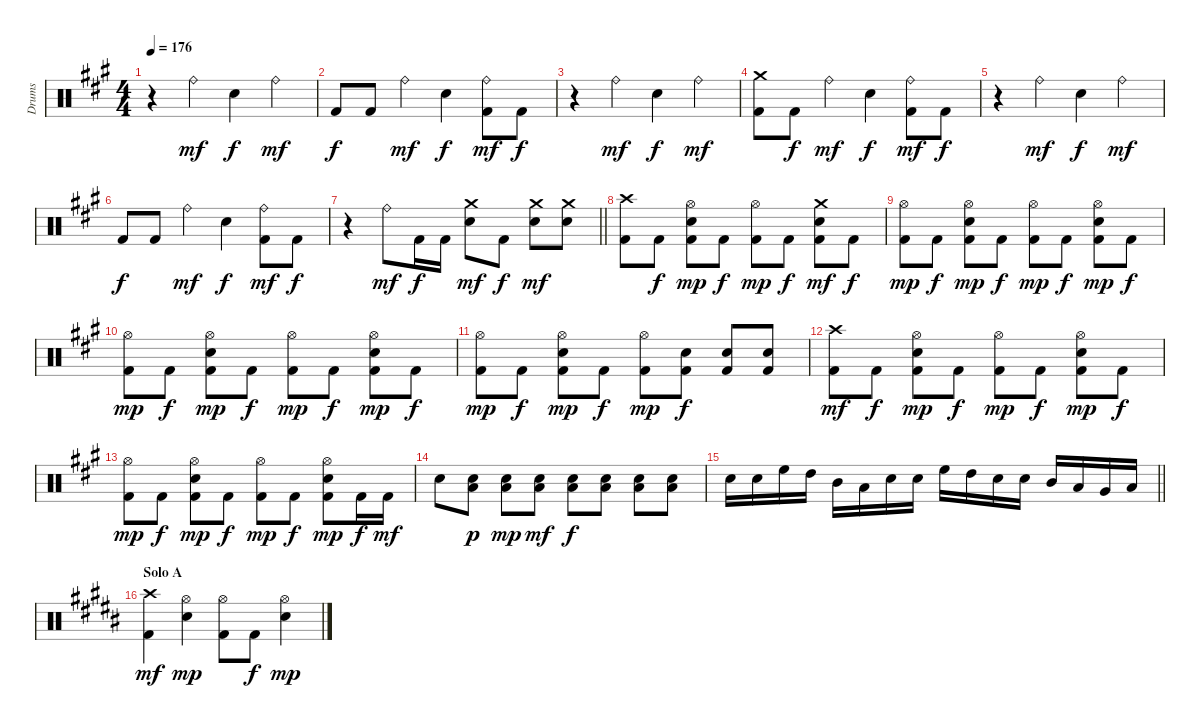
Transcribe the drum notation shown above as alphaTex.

\track ("Drums" "Drums") {instrument percussion}
\staff {score}
\articulation defaults
\ts (4 4)
\tempo 176
\clef neutral
\ks f#minor
r.4{dy f} "Ride (bell)".4{dy mf} "Electric Snare (hit)".4{dy f} "Ride (bell)".4{dy mf} |
"Kick (hit) 2".8{dy f} "Kick (hit) 2".8 "Ride (bell)".4{dy mf} "Electric Snare (hit)".4{dy f} ("Ride (bell)" "Kick (hit) 2").8{dy mf} "Kick (hit) 2".8{dy f} |
r.4 "Ride (bell)".4{dy mf} "Electric Snare (hit)".4{dy f} "Ride (bell)".4{dy mf} |
("Crash medium (hit)" "Kick (hit) 2").8 "Kick (hit) 2".8{dy f} "Ride (bell)".4{dy mf} "Electric Snare (hit)".4{dy f} ("Ride (bell)" "Kick (hit) 2").8{dy mf} "Kick (hit) 2".8{dy f} |
r.4 "Ride (bell)".4{dy mf} "Electric Snare (hit)".4{dy f} "Ride (bell)".4{dy mf} |
"Kick (hit) 2".8{dy f} "Kick (hit) 2".8 "Ride (bell)".4{dy mf} "Electric Snare (hit)".4{dy f} ("Ride (bell)" "Kick (hit) 2").8{dy mf} "Kick (hit) 2".8{dy f} |
\barLineRight lightlight
r.4 "Ride (bell)".8{dy mf} "Kick (hit) 2".16{dy f} "Kick (hit) 2".16 ("Crash medium (hit)" "Electric Snare (hit)").8{dy mf} "Kick (hit) 2".8{dy f} ("Crash medium (hit)" "Electric Snare (hit)").8{dy mf} ("Crash medium (hit)" "Electric Snare (hit)").8 |
\section ("" "")
("Crash high (hit)" "Kick (hit) 2").8 "Kick (hit) 2".8{dy f} ("Hi-Hat (open)" "Electric Snare (hit)" "Kick (hit) 2").8{dy mp} "Kick (hit) 2".8{dy f} ("Hi-Hat (open)" "Kick (hit) 2").8{dy mp} "Kick (hit) 2".8{dy f} ("Crash medium (hit)" "Electric Snare (hit)" "Kick (hit) 2").8{dy mf} "Kick (hit) 2".8{dy f} |
("Hi-Hat (open)" "Kick (hit) 2").8{dy mp} "Kick (hit) 2".8{dy f} ("Hi-Hat (open)" "Electric Snare (hit)" "Kick (hit) 2").8{dy mp} "Kick (hit) 2".8{dy f} ("Hi-Hat (open)" "Kick (hit) 2").8{dy mp} "Kick (hit) 2".8{dy f} ("Hi-Hat (open)" "Electric Snare (hit)" "Kick (hit) 2").8{dy mp} "Kick (hit) 2".8{dy f} |
("Hi-Hat (open)" "Kick (hit) 2").8{dy mp} "Kick (hit) 2".8{dy f} ("Hi-Hat (open)" "Electric Snare (hit)" "Kick (hit) 2").8{dy mp} "Kick (hit) 2".8{dy f} ("Hi-Hat (open)" "Kick (hit) 2").8{dy mp} "Kick (hit) 2".8{dy f} ("Hi-Hat (open)" "Electric Snare (hit)" "Kick (hit) 2").8{dy mp} "Kick (hit) 2".8{dy f} |
("Hi-Hat (open)" "Kick (hit) 2").8{dy mp} "Kick (hit) 2".8{dy f} ("Hi-Hat (open)" "Electric Snare (hit)" "Kick (hit) 2").8{dy mp} "Kick (hit) 2".8{dy f} ("Hi-Hat (open)" "Kick (hit) 2").8{dy mp} ("Electric Snare (hit)" "Kick (hit) 2").8{dy f} ("Electric Snare (hit)" "Kick (hit) 2").8 ("Electric Snare (hit)" "Kick (hit) 2").8 |
("Crash high (hit)" "Kick (hit) 2").8{dy mf} "Kick (hit) 2".8{dy f} ("Hi-Hat (open)" "Electric Snare (hit)" "Kick (hit) 2").8{dy mp} "Kick (hit) 2".8{dy f} ("Hi-Hat (open)" "Kick (hit) 2").8{dy mp} "Kick (hit) 2".8{dy f} ("Hi-Hat (open)" "Electric Snare (hit)" "Kick (hit) 2").8{dy mp} "Kick (hit) 2".8{dy f} |
("Hi-Hat (open)" "Kick (hit) 2").8{dy mp} "Kick (hit) 2".8{dy f} ("Hi-Hat (open)" "Electric Snare (hit)" "Kick (hit) 2").8{dy mp} "Kick (hit) 2".8{dy f} ("Hi-Hat (open)" "Kick (hit) 2").8{dy mp} "Kick (hit) 2".8{dy f} ("Hi-Hat (open)" "Electric Snare (hit)" "Kick (hit) 2").8{dy mp} "Kick (hit) 2".16{dy f} "Kick (hit) 2".16{dy mf} |
"Electric Snare (hit)".8 ("Low Floor Tom (hit)" "Electric Snare (hit)").8{dy p} ("Low Floor Tom (hit)" "Electric Snare (hit)").8{dy mp} ("Low Floor Tom (hit)" "Electric Snare (hit)").8{dy mf} ("Low Floor Tom (hit)" "Electric Snare (hit)").8{dy f} ("Low Floor Tom (hit)" "Electric Snare (hit)").8 ("Low Floor Tom (hit)" "Electric Snare (hit)").8 ("Low Floor Tom (hit)" "Electric Snare (hit)").8 |
\barLineRight lightlight "Electric Snare (hit)".16 "Electric Snare (hit)".16 "High Floor Tom (hit)".16 "High Tom (hit)".16 "Mid Tom (hit)".16 "Low Tom (hit)".16 "Electric Snare (hit)".16 "Electric Snare (hit)".16 "High Floor Tom (hit)".16 "High Tom (hit)".16 "Electric Snare (hit)".16 "Electric Snare (hit)".16 "Mid Tom (hit)".16 "Low Tom (hit)".16 "Very Low Tom (hit)".16 "Low Floor Tom (hit)".16
|
\section ("" "Solo A")
\ks g#minor
("Crash high (hit)" "Kick (hit) 2").4{dy mf} ("Hi-Hat (open)" "Electric Snare (hit)").4{dy mp} ("Hi-Hat (open)" "Kick (hit) 2").8 "Kick (hit) 2".8{dy f} ("Hi-Hat (open)" "Electric Snare (hit)").4{dy mp}
